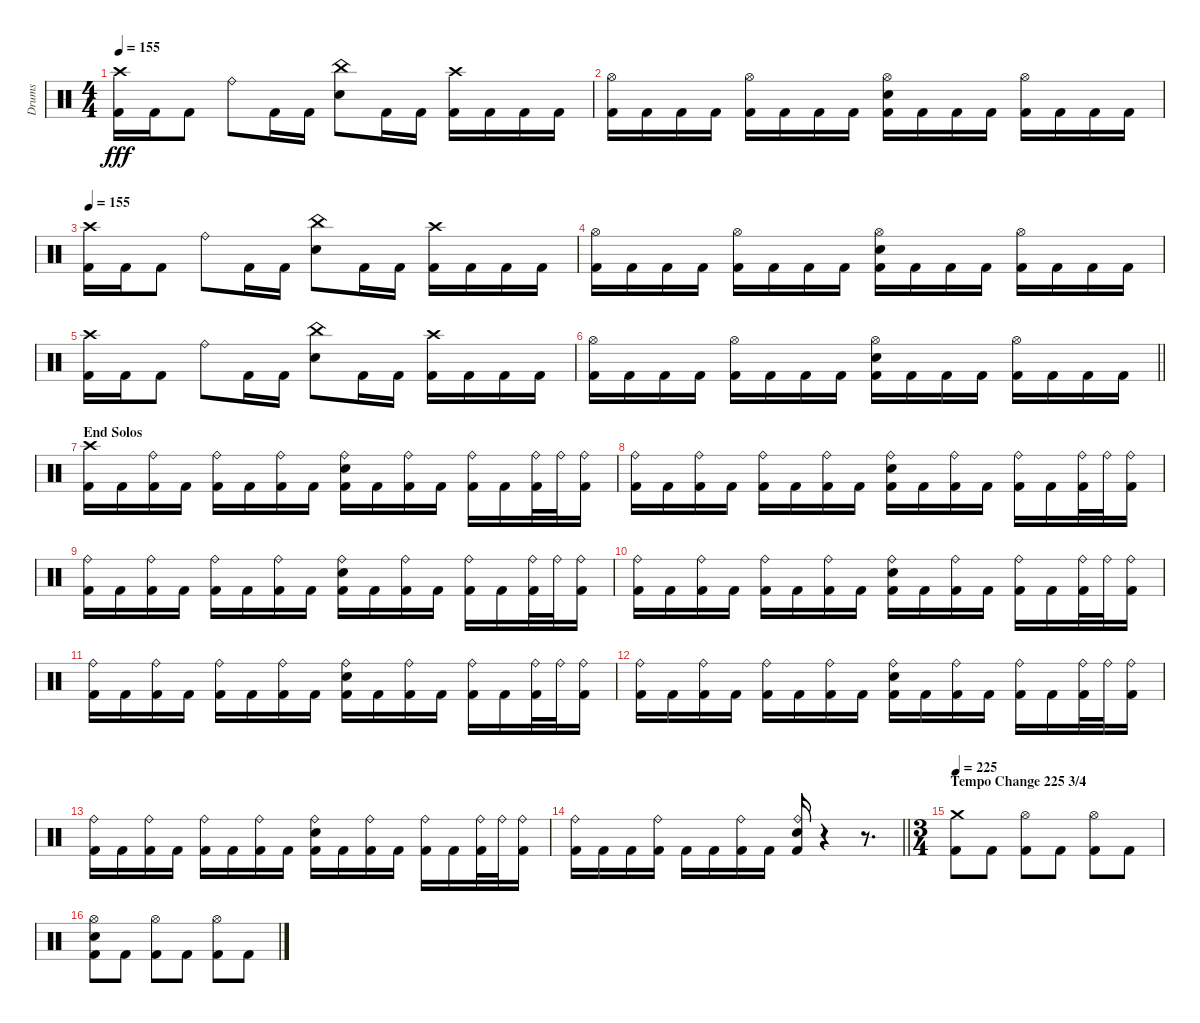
\track ("Drums" "Drums") {instrument percussion}
\staff {score}
\articulation defaults
\ts (4 4)
\tempo 155
\clef neutral
\ks c
("Crash high (hit)" "Kick (hit) 2").16{dy fff} "Kick (hit) 2".16 "Kick (hit) 2".8 "Ride (bell)".8 "Kick (hit) 2".16 "Kick (hit) 2".16 ("China (hit)" "Electric Snare (hit)").8 "Kick (hit) 2".16 "Kick (hit) 2".16 ("Crash high (hit)" "Kick (hit) 2").16 "Kick (hit) 2".16 "Kick (hit) 2".16 "Kick (hit) 2".16 |
("Hi-Hat (open)" "Kick (hit) 2").16 "Kick (hit) 2".16 "Kick (hit) 2".16 "Kick (hit) 2".16 ("Hi-Hat (open)" "Kick (hit) 2").16 "Kick (hit) 2".16 "Kick (hit) 2".16 "Kick (hit) 2".16 ("Hi-Hat (open)" "Electric Snare (hit)" "Kick (hit) 2").16 "Kick (hit) 2".16 "Kick (hit) 2".16 "Kick (hit) 2".16 ("Hi-Hat (open)" "Kick (hit) 2").16 "Kick (hit) 2".16 "Kick (hit) 2".16 "Kick (hit) 2".16 |
\tempo 155
("Crash high (hit)" "Kick (hit) 2").16 "Kick (hit) 2".16 "Kick (hit) 2".8 "Ride (bell)".8 "Kick (hit) 2".16 "Kick (hit) 2".16 ("China (hit)" "Electric Snare (hit)").8 "Kick (hit) 2".16 "Kick (hit) 2".16 ("Crash high (hit)" "Kick (hit) 2").16 "Kick (hit) 2".16 "Kick (hit) 2".16 "Kick (hit) 2".16 |
("Hi-Hat (open)" "Kick (hit) 2").16 "Kick (hit) 2".16 "Kick (hit) 2".16 "Kick (hit) 2".16 ("Hi-Hat (open)" "Kick (hit) 2").16 "Kick (hit) 2".16 "Kick (hit) 2".16 "Kick (hit) 2".16 ("Hi-Hat (open)" "Electric Snare (hit)" "Kick (hit) 2").16 "Kick (hit) 2".16 "Kick (hit) 2".16 "Kick (hit) 2".16 ("Hi-Hat (open)" "Kick (hit) 2").16 "Kick (hit) 2".16 "Kick (hit) 2".16 "Kick (hit) 2".16 |
("Crash high (hit)" "Kick (hit) 2").16 "Kick (hit) 2".16 "Kick (hit) 2".8 "Ride (bell)".8 "Kick (hit) 2".16 "Kick (hit) 2".16 ("China (hit)" "Electric Snare (hit)").8 "Kick (hit) 2".16 "Kick (hit) 2".16 ("Crash high (hit)" "Kick (hit) 2").16 "Kick (hit) 2".16 "Kick (hit) 2".16 "Kick (hit) 2".16 |
\barLineRight lightlight
("Hi-Hat (open)" "Kick (hit) 2").16 "Kick (hit) 2".16 "Kick (hit) 2".16 "Kick (hit) 2".16 ("Hi-Hat (open)" "Kick (hit) 2").16 "Kick (hit) 2".16 "Kick (hit) 2".16 "Kick (hit) 2".16 ("Hi-Hat (open)" "Electric Snare (hit)" "Kick (hit) 2").16 "Kick (hit) 2".16 "Kick (hit) 2".16 "Kick (hit) 2".16 ("Hi-Hat (open)" "Kick (hit) 2").16 "Kick (hit) 2".16 "Kick (hit) 2".16 "Kick (hit) 2".16 |
\section ("" "End Solos")
("Crash high (hit)" "Kick (hit) 2").16 "Kick (hit) 2".16 ("Ride (bell)" "Kick (hit) 2").16 "Kick (hit) 2".16 ("Ride (bell)" "Kick (hit) 2").16 "Kick (hit) 2".16 ("Ride (bell)" "Kick (hit) 2").16 "Kick (hit) 2".16 ("Ride (bell)" "Electric Snare (hit)" "Kick (hit) 2").16 "Kick (hit) 2".16 ("Ride (bell)" "Kick (hit) 2").16 "Kick (hit) 2".16 ("Ride (bell)" "Kick (hit) 2").16 "Kick (hit) 2".16 ("Ride (bell)" "Kick (hit) 2").32 "Ride (bell)".32 ("Ride (bell)" "Kick (hit) 2").16 |
("Ride (bell)" "Kick (hit) 2").16 "Kick (hit) 2".16 ("Ride (bell)" "Kick (hit) 2").16 "Kick (hit) 2".16 ("Ride (bell)" "Kick (hit) 2").16 "Kick (hit) 2".16 ("Ride (bell)" "Kick (hit) 2").16 "Kick (hit) 2".16 ("Ride (bell)" "Electric Snare (hit)" "Kick (hit) 2").16 "Kick (hit) 2".16 ("Ride (bell)" "Kick (hit) 2").16 "Kick (hit) 2".16 ("Ride (bell)" "Kick (hit) 2").16 "Kick (hit) 2".16 ("Ride (bell)" "Kick (hit) 2").32 "Ride (bell)".32 ("Ride (bell)" "Kick (hit) 2").16 |
("Ride (bell)" "Kick (hit) 2").16 "Kick (hit) 2".16 ("Ride (bell)" "Kick (hit) 2").16 "Kick (hit) 2".16 ("Ride (bell)" "Kick (hit) 2").16 "Kick (hit) 2".16 ("Ride (bell)" "Kick (hit) 2").16 "Kick (hit) 2".16 ("Ride (bell)" "Electric Snare (hit)" "Kick (hit) 2").16 "Kick (hit) 2".16 ("Ride (bell)" "Kick (hit) 2").16 "Kick (hit) 2".16 ("Ride (bell)" "Kick (hit) 2").16 "Kick (hit) 2".16 ("Ride (bell)" "Kick (hit) 2").32 "Ride (bell)".32 ("Ride (bell)" "Kick (hit) 2").16 |
("Ride (bell)" "Kick (hit) 2").16 "Kick (hit) 2".16 ("Ride (bell)" "Kick (hit) 2").16 "Kick (hit) 2".16 ("Ride (bell)" "Kick (hit) 2").16 "Kick (hit) 2".16 ("Ride (bell)" "Kick (hit) 2").16 "Kick (hit) 2".16 ("Ride (bell)" "Electric Snare (hit)" "Kick (hit) 2").16 "Kick (hit) 2".16 ("Ride (bell)" "Kick (hit) 2").16 "Kick (hit) 2".16 ("Ride (bell)" "Kick (hit) 2").16 "Kick (hit) 2".16 ("Ride (bell)" "Kick (hit) 2").32 "Ride (bell)".32 ("Ride (bell)" "Kick (hit) 2").16 |
("Ride (bell)" "Kick (hit) 2").16 "Kick (hit) 2".16 ("Ride (bell)" "Kick (hit) 2").16 "Kick (hit) 2".16 ("Ride (bell)" "Kick (hit) 2").16 "Kick (hit) 2".16 ("Ride (bell)" "Kick (hit) 2").16 "Kick (hit) 2".16 ("Ride (bell)" "Electric Snare (hit)" "Kick (hit) 2").16 "Kick (hit) 2".16 ("Ride (bell)" "Kick (hit) 2").16 "Kick (hit) 2".16 ("Ride (bell)" "Kick (hit) 2").16 "Kick (hit) 2".16 ("Ride (bell)" "Kick (hit) 2").32 "Ride (bell)".32 ("Ride (bell)" "Kick (hit) 2").16 |
("Ride (bell)" "Kick (hit) 2").16 "Kick (hit) 2".16 ("Ride (bell)" "Kick (hit) 2").16 "Kick (hit) 2".16 ("Ride (bell)" "Kick (hit) 2").16 "Kick (hit) 2".16 ("Ride (bell)" "Kick (hit) 2").16 "Kick (hit) 2".16 ("Ride (bell)" "Electric Snare (hit)" "Kick (hit) 2").16 "Kick (hit) 2".16 ("Ride (bell)" "Kick (hit) 2").16 "Kick (hit) 2".16 ("Ride (bell)" "Kick (hit) 2").16 "Kick (hit) 2".16 ("Ride (bell)" "Kick (hit) 2").32 "Ride (bell)".32 ("Ride (bell)" "Kick (hit) 2").16 |
("Ride (bell)" "Kick (hit) 2").16 "Kick (hit) 2".16 ("Ride (bell)" "Kick (hit) 2").16 "Kick (hit) 2".16 ("Ride (bell)" "Kick (hit) 2").16 "Kick (hit) 2".16 ("Ride (bell)" "Kick (hit) 2").16 "Kick (hit) 2".16 ("Ride (bell)" "Electric Snare (hit)" "Kick (hit) 2").16 "Kick (hit) 2".16 ("Ride (bell)" "Kick (hit) 2").16 "Kick (hit) 2".16 ("Ride (bell)" "Kick (hit) 2").16 "Kick (hit) 2".16 ("Ride (bell)" "Kick (hit) 2").32 "Ride (bell)".32 ("Ride (bell)" "Kick (hit) 2").16 |
\barLineRight lightlight
("Ride (bell)" "Kick (hit) 2").16 "Kick (hit) 2".16 "Kick (hit) 2".16 ("Ride (bell)" "Kick (hit) 2").16 "Kick (hit) 2".16 "Kick (hit) 2".16 ("Ride (bell)" "Kick (hit) 2").16 "Kick (hit) 2".16 ("Ride (bell)" "Electric Snare (hit)" "Kick (hit) 2").16 r.4 r.8{d} |
\ts (3 4)
\section ("" "Tempo Change 225 3/4")
\tempo 225
("Crash medium (hit)" "Kick (hit) 2").8 "Kick (hit) 2".8 ("Hi-Hat (open)" "Kick (hit) 2").8 "Kick (hit) 2".8 ("Hi-Hat (open)" "Kick (hit) 2").8 "Kick (hit) 2".8 |
("Hi-Hat (open)" "Electric Snare (hit)" "Kick (hit) 2").8 "Kick (hit) 2".8 ("Hi-Hat (open)" "Kick (hit) 2").8 "Kick (hit) 2".8 ("Hi-Hat (open)" "Kick (hit) 2").8 "Kick (hit) 2".8
